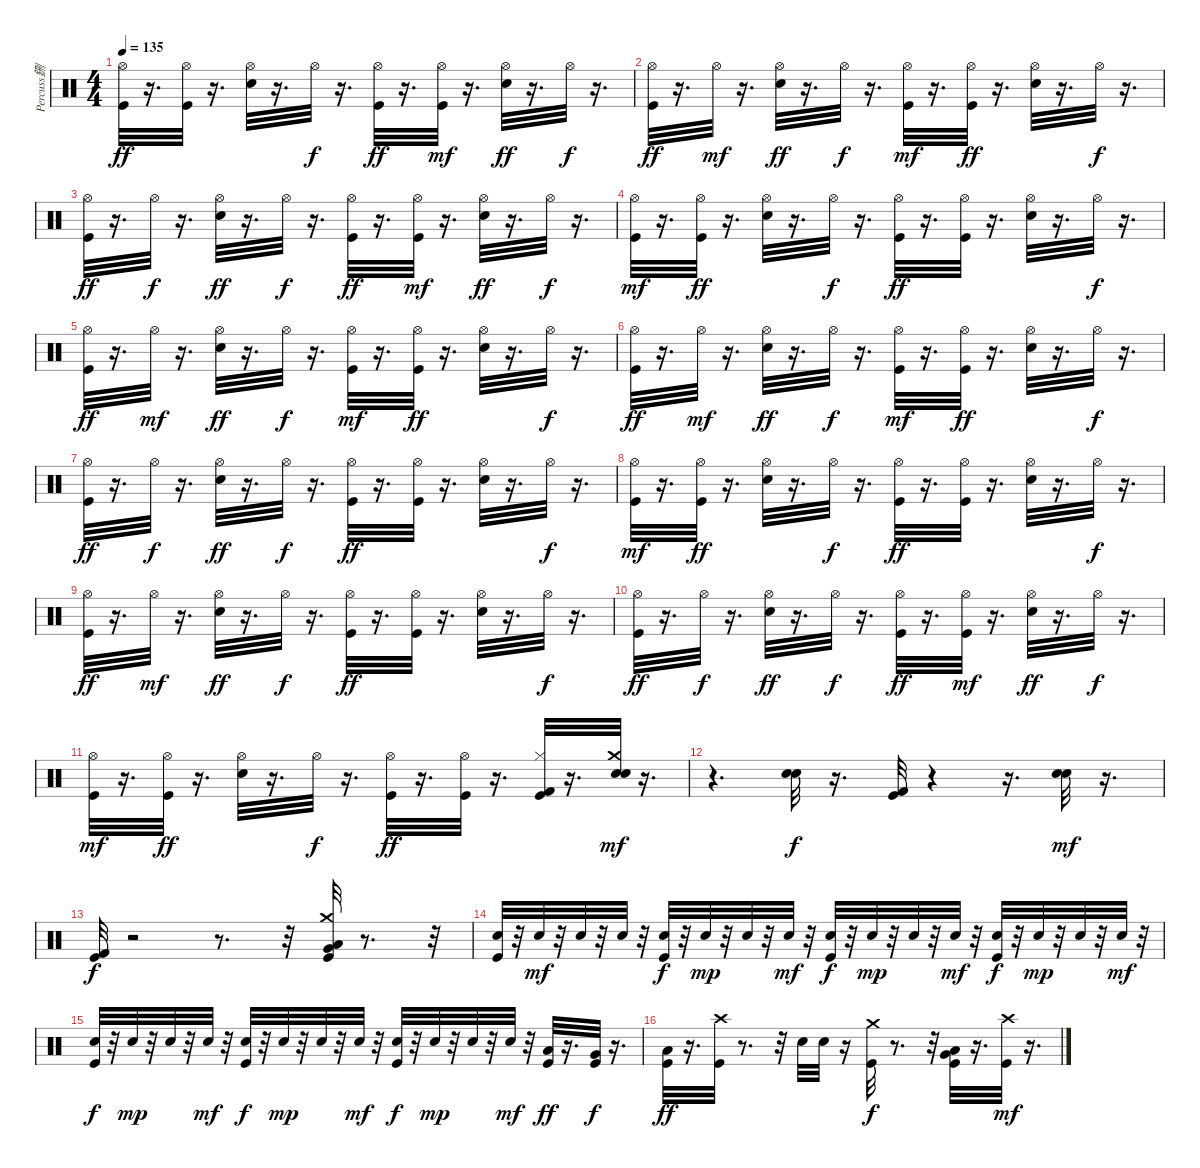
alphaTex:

\track ("Percuss鉶" "Percuss鉶") {instrument percussion}
\staff {score}
\articulation defaults
\ts (4 4)
\tempo 135
\clef neutral
\ks c
("Hi-Hat (open)" "Kick (hit)").32{dy ff} r.16{d} ("Hi-Hat (open)" "Kick (hit)").32 r.16{d} ("Hi-Hat (open)" "Electric Snare (hit)").32 r.16{d} "Hi-Hat (open)".32{dy f} r.16{d} ("Hi-Hat (open)" "Kick (hit)").32{dy ff} r.16{d} ("Kick (hit)" "Hi-Hat (open)").32{dy mf} r.16{d} ("Hi-Hat (open)" "Electric Snare (hit)").32{dy ff} r.16{d} "Hi-Hat (open)".32{dy f} r.16{d} |
("Kick (hit)" "Hi-Hat (open)").32{dy ff} r.16{d} "Hi-Hat (open)".32{dy mf} r.16{d} ("Electric Snare (hit)" "Hi-Hat (open)").32{dy ff} r.16{d} "Hi-Hat (open)".32{dy f} r.16{d} ("Kick (hit)" "Hi-Hat (open)").32{dy mf} r.16{d} ("Kick (hit)" "Hi-Hat (open)").32{dy ff} r.16{d} ("Hi-Hat (open)" "Electric Snare (hit)").32 r.16{d} "Hi-Hat (open)".32{dy f} r.16{d} |
("Kick (hit)" "Hi-Hat (open)").32{dy ff} r.16{d} "Hi-Hat (open)".32{dy f} r.16{d} ("Hi-Hat (open)" "Electric Snare (hit)").32{dy ff} r.16{d} "Hi-Hat (open)".32{dy f} r.16{d} ("Kick (hit)" "Hi-Hat (open)").32{dy ff} r.16{d} ("Kick (hit)" "Hi-Hat (open)").32{dy mf} r.16{d} ("Hi-Hat (open)" "Electric Snare (hit)").32{dy ff} r.16{d} "Hi-Hat (open)".32{dy f} r.16{d} |
("Kick (hit)" "Hi-Hat (open)").32{dy mf} r.16{d} ("Hi-Hat (open)" "Kick (hit)").32{dy ff} r.16{d} ("Electric Snare (hit)" "Hi-Hat (open)").32 r.16{d} "Hi-Hat (open)".32{dy f} r.16{d} ("Hi-Hat (open)" "Kick (hit)").32{dy ff} r.16{d} ("Hi-Hat (open)" "Kick (hit)").32 r.16{d} ("Hi-Hat (open)" "Electric Snare (hit)").32 r.16{d} "Hi-Hat (open)".32{dy f} r.16{d} |
("Hi-Hat (open)" "Kick (hit)").32{dy ff} r.16{d} "Hi-Hat (open)".32{dy mf} r.16{d} ("Electric Snare (hit)" "Hi-Hat (open)").32{dy ff} r.16{d} "Hi-Hat (open)".32{dy f} r.16{d} ("Kick (hit)" "Hi-Hat (open)").32{dy mf} r.16{d} ("Hi-Hat (open)" "Kick (hit)").32{dy ff} r.16{d} ("Electric Snare (hit)" "Hi-Hat (open)").32 r.16{d} "Hi-Hat (open)".32{dy f} r.16{d} |
("Kick (hit)" "Hi-Hat (open)").32{dy ff} r.16{d} "Hi-Hat (open)".32{dy mf} r.16{d} ("Electric Snare (hit)" "Hi-Hat (open)").32{dy ff} r.16{d} "Hi-Hat (open)".32{dy f} r.16{d} ("Kick (hit)" "Hi-Hat (open)").32{dy mf} r.16{d} ("Hi-Hat (open)" "Kick (hit)").32{dy ff} r.16{d} ("Electric Snare (hit)" "Hi-Hat (open)").32 r.16{d} "Hi-Hat (open)".32{dy f} r.16{d} |
("Kick (hit)" "Hi-Hat (open)").32{dy ff} r.16{d} "Hi-Hat (open)".32{dy f} r.16{d} ("Electric Snare (hit)" "Hi-Hat (open)").32{dy ff} r.16{d} "Hi-Hat (open)".32{dy f} r.16{d} ("Hi-Hat (open)" "Kick (hit)").32{dy ff} r.16{d} ("Hi-Hat (open)" "Kick (hit)").32 r.16{d} ("Electric Snare (hit)" "Hi-Hat (open)").32 r.16{d} "Hi-Hat (open)".32{dy f} r.16{d} |
("Kick (hit)" "Hi-Hat (open)").32{dy mf} r.16{d} ("Hi-Hat (open)" "Kick (hit)").32{dy ff} r.16{d} ("Hi-Hat (open)" "Electric Snare (hit)").32 r.16{d} "Hi-Hat (open)".32{dy f} r.16{d} ("Kick (hit)" "Hi-Hat (open)").32{dy ff} r.16{d} ("Hi-Hat (open)" "Kick (hit)").32 r.16{d} ("Electric Snare (hit)" "Hi-Hat (open)").32 r.16{d} "Hi-Hat (open)".32{dy f} r.16{d} |
("Kick (hit)" "Hi-Hat (open)").32{dy ff} r.16{d} "Hi-Hat (open)".32{dy mf} r.16{d} ("Hi-Hat (open)" "Electric Snare (hit)").32{dy ff} r.16{d} "Hi-Hat (open)".32{dy f} r.16{d} ("Hi-Hat (open)" "Kick (hit)").32{dy ff} r.16{d} ("Hi-Hat (open)" "Kick (hit)").32 r.16{d} ("Electric Snare (hit)" "Hi-Hat (open)").32 r.16{d} "Hi-Hat (open)".32{dy f} r.16{d} |
("Kick (hit)" "Hi-Hat (open)").32{dy ff} r.16{d} "Hi-Hat (open)".32{dy f} r.16{d} ("Hi-Hat (open)" "Electric Snare (hit)").32{dy ff} r.16{d} "Hi-Hat (open)".32{dy f} r.16{d} ("Kick (hit)" "Hi-Hat (open)").32{dy ff} r.16{d} ("Kick (hit)" "Hi-Hat (open)").32{dy mf} r.16{d} ("Hi-Hat (open)" "Electric Snare (hit)").32{dy ff} r.16{d} "Hi-Hat (open)".32{dy f} r.16{d} |
("Kick (hit)" "Hi-Hat (open)").32{dy mf} r.16{d} ("Hi-Hat (open)" "Kick (hit)").32{dy ff} r.16{d} ("Electric Snare (hit)" "Hi-Hat (open)").32 r.16{d} "Hi-Hat (open)".32{dy f} r.16{d} ("Hi-Hat (open)" "Kick (hit)").32{dy ff} r.16{d} ("Hi-Hat (open)" "Kick (hit)").32 r.16{d} ("Hi-Hat (closed)" "Kick (hit) 2" "Kick (hit)").32 r.16{d} ("Electric Snare (hit)" "Crash medium (hit)" "Snare (hit) 2").32{dy mf} r.16{d} |
r.4{d} ("Electric Snare (hit)" "Snare (hit) 2").32{dy f} r.16{d} ("Kick (hit) 2" "Kick (hit)").32 r.4 r.16{d} ("Electric Snare (hit)" "Snare (hit) 2").32{dy mf} r.16{d} |
("Kick (hit) 2" "Kick (hit)").32{dy f} r.2 r.8{d} r.32 ("Low Tom (hit)" "Kick (hit)" "Crash medium (hit)" "Very Low Tom (hit)").32 r.8{d} r.32 |
("Kick (hit)" "Electric Snare (hit)").32 r.32 "Electric Snare (hit)".32{dy mf} r.32 "Electric Snare (hit)".32 r.32 "Electric Snare (hit)".32 r.32 ("Kick (hit)" "Electric Snare (hit)").32{dy f} r.32 "Electric Snare (hit)".32{dy mp} r.32 "Electric Snare (hit)".32 r.32 "Electric Snare (hit)".32{dy mf} r.32 ("Kick (hit)" "Electric Snare (hit)").32{dy f} r.32 "Electric Snare (hit)".32{dy mp} r.32 "Electric Snare (hit)".32 r.32 "Electric Snare (hit)".32{dy mf} r.32 ("Kick (hit)" "Electric Snare (hit)").32{dy f} r.32 "Electric Snare (hit)".32{dy mp} r.32 "Electric Snare (hit)".32 r.32 "Electric Snare (hit)".32{dy mf} r.32 |
("Kick (hit)" "Electric Snare (hit)").32{dy f} r.32 "Electric Snare (hit)".32{dy mp} r.32 "Electric Snare (hit)".32 r.32 "Electric Snare (hit)".32{dy mf} r.32 ("Kick (hit)" "Electric Snare (hit)").32{dy f} r.32 "Electric Snare (hit)".32{dy mp} r.32 "Electric Snare (hit)".32 r.32 "Electric Snare (hit)".32{dy mf} r.32 ("Kick (hit)" "Electric Snare (hit)").32{dy f} r.32 "Electric Snare (hit)".32{dy mp} r.32 "Electric Snare (hit)".32 r.32 "Electric Snare (hit)".32{dy mf} r.32 ("Low Tom (hit)" "Kick (hit)").32{dy ff} r.16{d} ("Very Low Tom (hit)" "Kick (hit)").32{dy f} r.16{d} |
("Low Floor Tom (hit)" "Kick (hit)").32{dy ff} r.16{d} ("Kick (hit)" "Crash high (hit)").32 r.8{d} r.32 "Electric Snare (hit)".32 "Electric Snare (hit)".32 r.16 ("Crash medium (hit)" "Kick (hit)").32{dy f} r.8{d} r.32 ("Kick (hit)" "Very Low Tom (hit)" "Low Floor Tom (hit)").32 r.16{d} ("Crash high (hit)" "Kick (hit)").32{dy mf} r.16{d}
